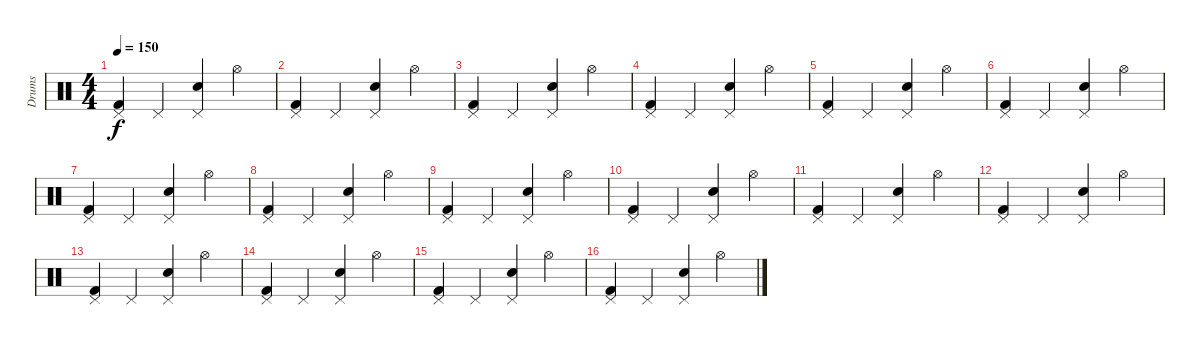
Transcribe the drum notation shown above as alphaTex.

\track ("Drums" "Drums") {instrument percussion}
\staff {score}
\articulation defaults
\ts (4 4)
\tempo 150
\clef neutral
\ks c
("Pedal Hi-Hat (hit)" "Kick (hit) 2").4{dy f} "Pedal Hi-Hat (hit)".4 ("Pedal Hi-Hat (hit)" "Electric Snare (hit)").4 "Hi-Hat (open)".4 |
("Pedal Hi-Hat (hit)" "Kick (hit) 2").4 "Pedal Hi-Hat (hit)".4 ("Pedal Hi-Hat (hit)" "Electric Snare (hit)").4 "Hi-Hat (open)".4 |
("Pedal Hi-Hat (hit)" "Kick (hit) 2").4 "Pedal Hi-Hat (hit)".4 ("Pedal Hi-Hat (hit)" "Electric Snare (hit)").4 "Hi-Hat (open)".4 |
("Pedal Hi-Hat (hit)" "Kick (hit) 2").4 "Pedal Hi-Hat (hit)".4 ("Pedal Hi-Hat (hit)" "Electric Snare (hit)").4 "Hi-Hat (open)".4 |
("Pedal Hi-Hat (hit)" "Kick (hit) 2").4 "Pedal Hi-Hat (hit)".4 ("Pedal Hi-Hat (hit)" "Electric Snare (hit)").4 "Hi-Hat (open)".4 |
("Pedal Hi-Hat (hit)" "Kick (hit) 2").4 "Pedal Hi-Hat (hit)".4 ("Pedal Hi-Hat (hit)" "Electric Snare (hit)").4 "Hi-Hat (open)".4 |
("Pedal Hi-Hat (hit)" "Kick (hit) 2").4 "Pedal Hi-Hat (hit)".4 ("Pedal Hi-Hat (hit)" "Electric Snare (hit)").4 "Hi-Hat (open)".4 |
("Pedal Hi-Hat (hit)" "Kick (hit) 2").4 "Pedal Hi-Hat (hit)".4 ("Pedal Hi-Hat (hit)" "Electric Snare (hit)").4 "Hi-Hat (open)".4 |
("Pedal Hi-Hat (hit)" "Kick (hit) 2").4 "Pedal Hi-Hat (hit)".4 ("Pedal Hi-Hat (hit)" "Electric Snare (hit)").4 "Hi-Hat (open)".4 |
("Pedal Hi-Hat (hit)" "Kick (hit) 2").4 "Pedal Hi-Hat (hit)".4 ("Pedal Hi-Hat (hit)" "Electric Snare (hit)").4 "Hi-Hat (open)".4 |
("Pedal Hi-Hat (hit)" "Kick (hit) 2").4 "Pedal Hi-Hat (hit)".4 ("Pedal Hi-Hat (hit)" "Electric Snare (hit)").4 "Hi-Hat (open)".4 |
("Pedal Hi-Hat (hit)" "Kick (hit) 2").4 "Pedal Hi-Hat (hit)".4 ("Pedal Hi-Hat (hit)" "Electric Snare (hit)").4 "Hi-Hat (open)".4 |
("Pedal Hi-Hat (hit)" "Kick (hit) 2").4 "Pedal Hi-Hat (hit)".4 ("Pedal Hi-Hat (hit)" "Electric Snare (hit)").4 "Hi-Hat (open)".4 |
("Pedal Hi-Hat (hit)" "Kick (hit) 2").4 "Pedal Hi-Hat (hit)".4 ("Pedal Hi-Hat (hit)" "Electric Snare (hit)").4 "Hi-Hat (open)".4 |
("Pedal Hi-Hat (hit)" "Kick (hit) 2").4 "Pedal Hi-Hat (hit)".4 ("Pedal Hi-Hat (hit)" "Electric Snare (hit)").4 "Hi-Hat (open)".4 |
("Pedal Hi-Hat (hit)" "Kick (hit) 2").4 "Pedal Hi-Hat (hit)".4 ("Pedal Hi-Hat (hit)" "Electric Snare (hit)").4 "Hi-Hat (open)".4
